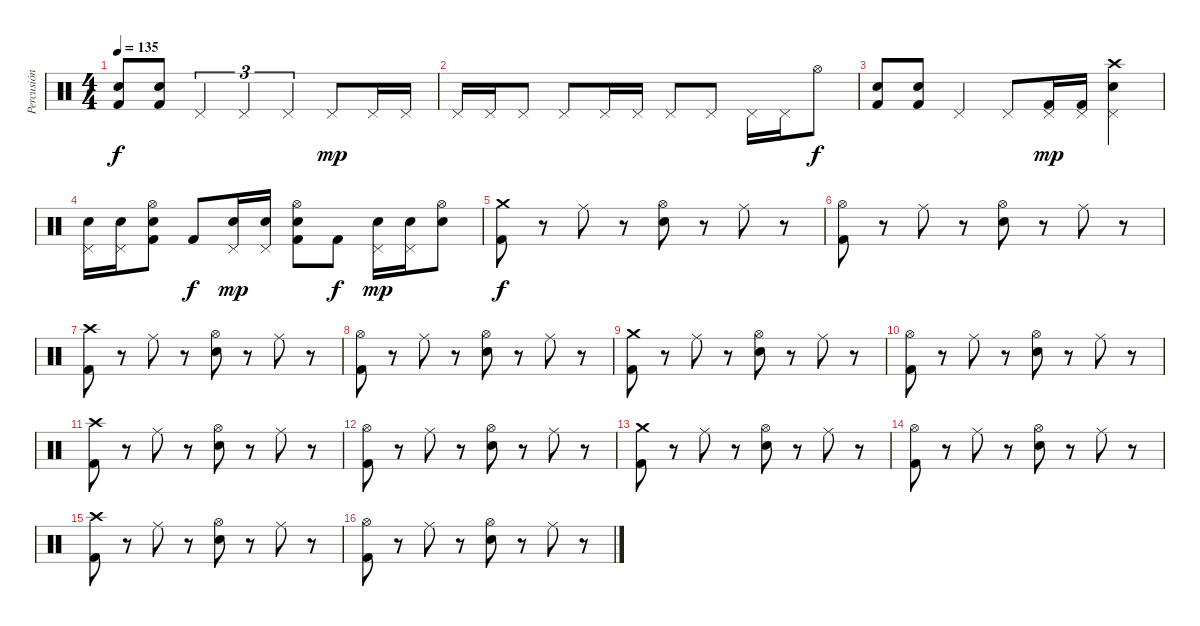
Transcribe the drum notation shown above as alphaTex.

\track ("Percusión" "Percusión") {instrument percussion}
\staff {score}
\articulation defaults
\ts (4 4)
\tempo 135
\clef neutral
\ks c
("Electric Snare (hit)" "Kick (hit) 2").8{dy f} ("Electric Snare (hit)" "Kick (hit) 2").8 "Pedal Hi-Hat (hit)".4{tu (3 2)} "Pedal Hi-Hat (hit)".4{tu (3 2)} "Pedal Hi-Hat (hit)".4{tu (3 2)} "Pedal Hi-Hat (hit)".8{dy mp} "Pedal Hi-Hat (hit)".16 "Pedal Hi-Hat (hit)".16 |
"Pedal Hi-Hat (hit)".16 "Pedal Hi-Hat (hit)".16 "Pedal Hi-Hat (hit)".8 "Pedal Hi-Hat (hit)".8 "Pedal Hi-Hat (hit)".16 "Pedal Hi-Hat (hit)".16 "Pedal Hi-Hat (hit)".8 "Pedal Hi-Hat (hit)".8 "Pedal Hi-Hat (hit)".16 "Pedal Hi-Hat (hit)".16 "Hi-Hat (open)".8{dy f} |
("Electric Snare (hit)" "Kick (hit) 2").8 ("Electric Snare (hit)" "Kick (hit) 2").8 "Pedal Hi-Hat (hit)".4 "Pedal Hi-Hat (hit)".8 ("Pedal Hi-Hat (hit)" "Kick (hit) 2").16{dy mp} ("Pedal Hi-Hat (hit)" "Kick (hit) 2").16 ("Crash high (hit)" "Pedal Hi-Hat (hit)" "Electric Snare (hit)").4 |
("Pedal Hi-Hat (hit)" "Electric Snare (hit)").16 ("Pedal Hi-Hat (hit)" "Electric Snare (hit)").16 ("Hi-Hat (open)" "Electric Snare (hit)" "Kick (hit) 2").8 "Kick (hit) 2".8{dy f} ("Pedal Hi-Hat (hit)" "Electric Snare (hit)").16{dy mp} ("Pedal Hi-Hat (hit)" "Electric Snare (hit)").16 ("Hi-Hat (open)" "Electric Snare (hit)" "Kick (hit) 2").8 "Kick (hit) 2".8{dy f} ("Pedal Hi-Hat (hit)" "Electric Snare (hit)").16{dy mp} ("Pedal Hi-Hat (hit)" "Electric Snare (hit)").16 ("Hi-Hat (open)" "Electric Snare (hit)").8 |
("Crash medium (hit)" "Kick (hit) 2").8{dy f} r.8 "Ride (middle)".8 r.8 ("Hi-Hat (open)" "Electric Snare (hit)").8 r.8 "Ride (middle)".8 r.8 |
("Hi-Hat (open)" "Kick (hit) 2").8 r.8 "Ride (middle)".8 r.8 ("Hi-Hat (open)" "Electric Snare (hit)").8 r.8 "Ride (middle)".8 r.8 |
("Crash high (hit)" "Kick (hit) 2").8 r.8 "Ride (middle)".8 r.8 ("Hi-Hat (open)" "Electric Snare (hit)").8 r.8 "Ride (middle)".8 r.8 |
("Hi-Hat (open)" "Kick (hit) 2").8 r.8 "Ride (middle)".8 r.8 ("Hi-Hat (open)" "Electric Snare (hit)").8 r.8 "Ride (middle)".8 r.8 |
("Crash medium (hit)" "Kick (hit) 2").8 r.8 "Ride (middle)".8 r.8 ("Hi-Hat (open)" "Electric Snare (hit)").8 r.8 "Ride (middle)".8 r.8 |
("Hi-Hat (open)" "Kick (hit) 2").8 r.8 "Ride (middle)".8 r.8 ("Hi-Hat (open)" "Electric Snare (hit)").8 r.8 "Ride (middle)".8 r.8 |
("Crash high (hit)" "Kick (hit) 2").8 r.8 "Ride (middle)".8 r.8 ("Hi-Hat (open)" "Electric Snare (hit)").8 r.8 "Ride (middle)".8 r.8 |
("Hi-Hat (open)" "Kick (hit) 2").8 r.8 "Ride (middle)".8 r.8 ("Hi-Hat (open)" "Electric Snare (hit)").8 r.8 "Ride (middle)".8 r.8 |
("Crash medium (hit)" "Kick (hit) 2").8 r.8 "Ride (middle)".8 r.8 ("Hi-Hat (open)" "Electric Snare (hit)").8 r.8 "Ride (middle)".8 r.8 |
("Hi-Hat (open)" "Kick (hit) 2").8 r.8 "Ride (middle)".8 r.8 ("Hi-Hat (open)" "Electric Snare (hit)").8 r.8 "Ride (middle)".8 r.8 |
("Crash high (hit)" "Kick (hit) 2").8 r.8 "Ride (middle)".8 r.8 ("Hi-Hat (open)" "Electric Snare (hit)").8 r.8 "Ride (middle)".8 r.8 |
("Hi-Hat (open)" "Kick (hit) 2").8 r.8 "Ride (middle)".8 r.8 ("Hi-Hat (open)" "Electric Snare (hit)").8 r.8 "Ride (middle)".8 r.8
